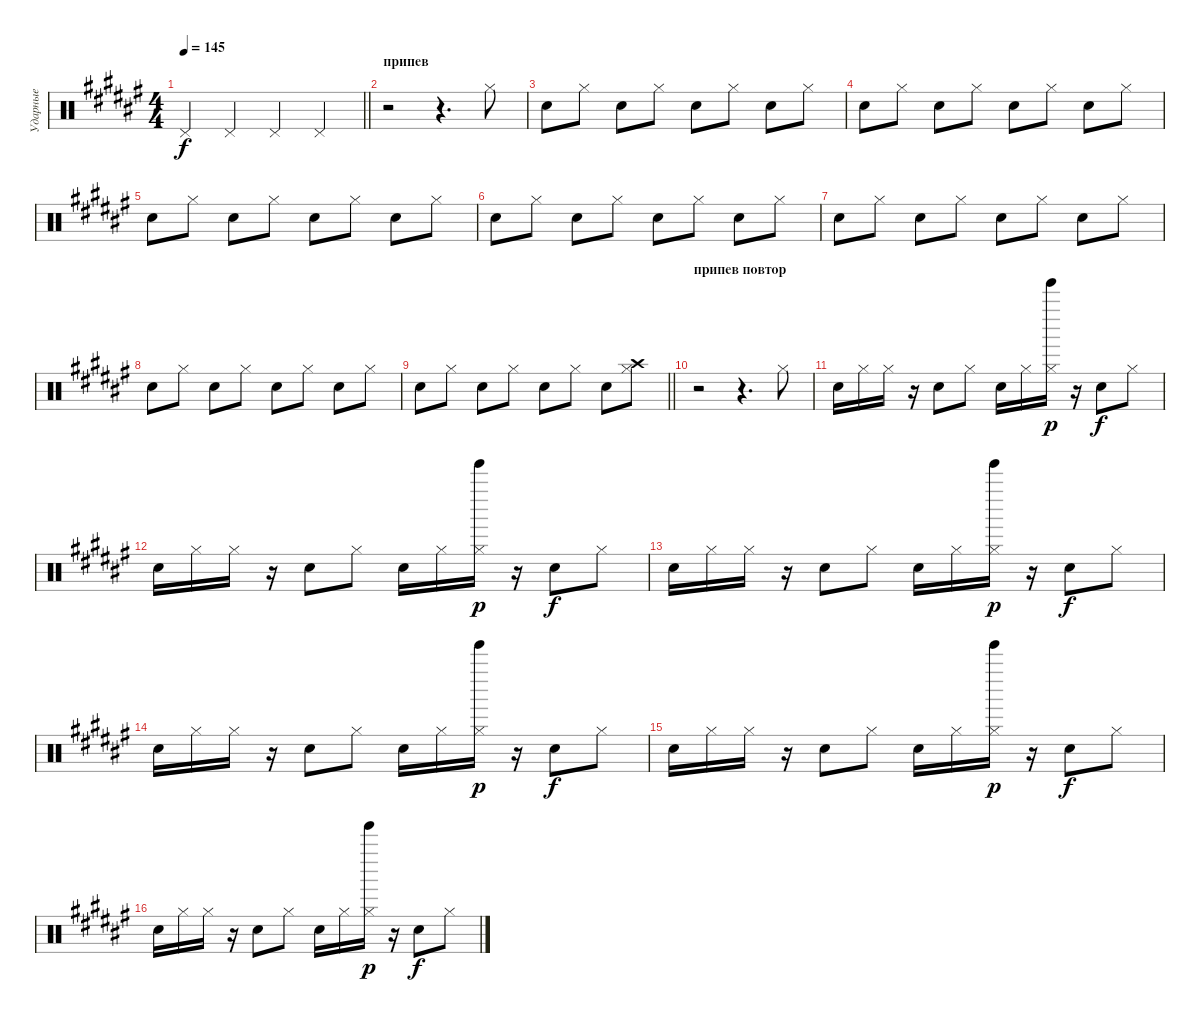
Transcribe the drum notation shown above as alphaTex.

\track ("Ударные" "Ударные") {instrument percussion}
\staff {score}
\articulation defaults
\ts (4 4)
\tempo 145
\clef neutral
\barLineRight lightlight
\ks f# "Pedal Hi-Hat (hit)".4{dy f} "Pedal Hi-Hat (hit)".4 "Pedal Hi-Hat (hit)".4 "Pedal Hi-Hat (hit)".4
|
\section ("" "припев")
r.2 r.4{d} "Hi-Hat (closed)".8 |
"Electric Snare (hit)".8 "Hi-Hat (closed)".8 "Electric Snare (hit)".8 "Hi-Hat (closed)".8 "Electric Snare (hit)".8 "Hi-Hat (closed)".8 "Electric Snare (hit)".8 "Hi-Hat (closed)".8 |
"Electric Snare (hit)".8 "Hi-Hat (closed)".8 "Electric Snare (hit)".8 "Hi-Hat (closed)".8 "Electric Snare (hit)".8 "Hi-Hat (closed)".8 "Electric Snare (hit)".8 "Hi-Hat (closed)".8 |
"Electric Snare (hit)".8 "Hi-Hat (closed)".8 "Electric Snare (hit)".8 "Hi-Hat (closed)".8 "Electric Snare (hit)".8 "Hi-Hat (closed)".8 "Electric Snare (hit)".8 "Hi-Hat (closed)".8 |
"Electric Snare (hit)".8 "Hi-Hat (closed)".8 "Electric Snare (hit)".8 "Hi-Hat (closed)".8 "Electric Snare (hit)".8 "Hi-Hat (closed)".8 "Electric Snare (hit)".8 "Hi-Hat (closed)".8 |
"Electric Snare (hit)".8 "Hi-Hat (closed)".8 "Electric Snare (hit)".8 "Hi-Hat (closed)".8 "Electric Snare (hit)".8 "Hi-Hat (closed)".8 "Electric Snare (hit)".8 "Hi-Hat (closed)".8 |
"Electric Snare (hit)".8 "Hi-Hat (closed)".8 "Electric Snare (hit)".8 "Hi-Hat (closed)".8 "Electric Snare (hit)".8 "Hi-Hat (closed)".8 "Electric Snare (hit)".8 "Hi-Hat (closed)".8 |
\barLineRight lightlight "Electric Snare (hit)".8 "Hi-Hat (closed)".8 "Electric Snare (hit)".8 "Hi-Hat (closed)".8 "Electric Snare (hit)".8 "Hi-Hat (closed)".8 "Electric Snare (hit)".8
("Hi-Hat (closed)" "Crash high (hit)").8 |
\section ("" "припев повтор")
r.2 r.4{d} "Hi-Hat (closed)".8 |
"Electric Snare (hit)".16 "Hi-Hat (closed)".16 "Hi-Hat (closed)".16 r.16 "Electric Snare (hit)".8 "Hi-Hat (closed)".8 "Electric Snare (hit)".16 "Hi-Hat (closed)".16 ("Hi-Hat (closed)" "Tinkle Bell (hit)").16{dy p} r.16 "Electric Snare (hit)".8{dy f} "Hi-Hat (closed)".8 |
"Electric Snare (hit)".16 "Hi-Hat (closed)".16 "Hi-Hat (closed)".16 r.16 "Electric Snare (hit)".8 "Hi-Hat (closed)".8 "Electric Snare (hit)".16 "Hi-Hat (closed)".16 ("Hi-Hat (closed)" "Tinkle Bell (hit)").16{dy p} r.16 "Electric Snare (hit)".8{dy f} "Hi-Hat (closed)".8 |
"Electric Snare (hit)".16 "Hi-Hat (closed)".16 "Hi-Hat (closed)".16 r.16 "Electric Snare (hit)".8 "Hi-Hat (closed)".8 "Electric Snare (hit)".16 "Hi-Hat (closed)".16 ("Hi-Hat (closed)" "Tinkle Bell (hit)").16{dy p} r.16 "Electric Snare (hit)".8{dy f} "Hi-Hat (closed)".8 |
"Electric Snare (hit)".16 "Hi-Hat (closed)".16 "Hi-Hat (closed)".16 r.16 "Electric Snare (hit)".8 "Hi-Hat (closed)".8 "Electric Snare (hit)".16 "Hi-Hat (closed)".16 ("Hi-Hat (closed)" "Tinkle Bell (hit)").16{dy p} r.16 "Electric Snare (hit)".8{dy f} "Hi-Hat (closed)".8 |
"Electric Snare (hit)".16 "Hi-Hat (closed)".16 "Hi-Hat (closed)".16 r.16 "Electric Snare (hit)".8 "Hi-Hat (closed)".8 "Electric Snare (hit)".16 "Hi-Hat (closed)".16 ("Hi-Hat (closed)" "Tinkle Bell (hit)").16{dy p} r.16 "Electric Snare (hit)".8{dy f} "Hi-Hat (closed)".8 |
"Electric Snare (hit)".16 "Hi-Hat (closed)".16 "Hi-Hat (closed)".16 r.16 "Electric Snare (hit)".8 "Hi-Hat (closed)".8 "Electric Snare (hit)".16 "Hi-Hat (closed)".16 ("Hi-Hat (closed)" "Tinkle Bell (hit)").16{dy p} r.16 "Electric Snare (hit)".8{dy f} "Hi-Hat (closed)".8
